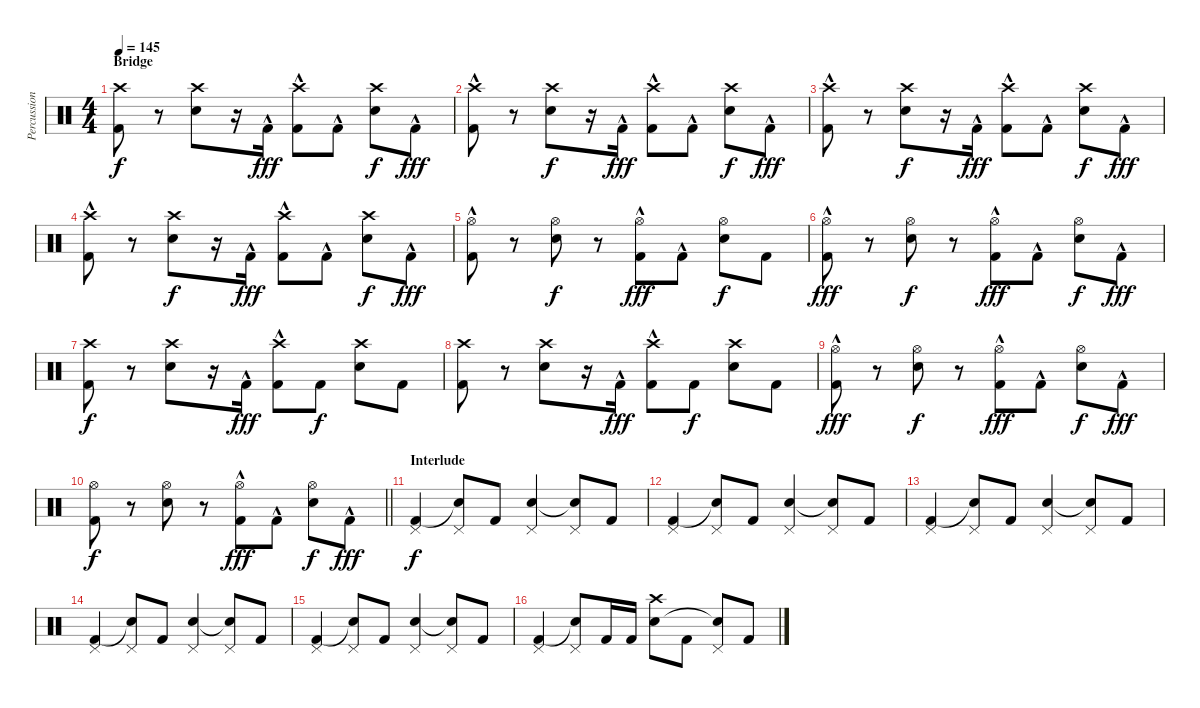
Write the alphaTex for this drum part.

\track ("Percussion" "Percussion") {instrument percussion}
\staff {score}
\articulation defaults
\ts (4 4)
\section ("" "Bridge")
\tempo 145
\clef neutral
\ks c
("Crash high (hit)" "Kick (hit) 2").8{dy f} r.8 ("Snare (hit) 2" "Crash high (hit)").8 r.16 "Kick (hit) 2"{hac}.16{dy fff} ("Crash high (hit)" "Kick (hit) 2"{hac}).8 "Kick (hit) 2"{hac}.8 ("Snare (hit) 2" "Crash high (hit)").8{dy f} "Kick (hit) 2"{hac}.8{dy fff} |
("Crash high (hit)" "Kick (hit) 2"{hac}).8 r.8 ("Snare (hit) 2" "Crash high (hit)").8{dy f} r.16 "Kick (hit) 2"{hac}.16{dy fff} ("Crash high (hit)" "Kick (hit) 2"{hac}).8 "Kick (hit) 2"{hac}.8 ("Snare (hit) 2" "Crash high (hit)").8{dy f} "Kick (hit) 2"{hac}.8{dy fff} |
("Crash high (hit)" "Kick (hit) 2"{hac}).8 r.8 ("Snare (hit) 2" "Crash high (hit)").8{dy f} r.16 "Kick (hit) 2"{hac}.16{dy fff} ("Crash high (hit)" "Kick (hit) 2"{hac}).8 "Kick (hit) 2"{hac}.8 ("Snare (hit) 2" "Crash high (hit)").8{dy f} "Kick (hit) 2"{hac}.8{dy fff} |
("Crash high (hit)" "Kick (hit) 2"{hac}).8 r.8 ("Snare (hit) 2" "Crash high (hit)").8{dy f} r.16 "Kick (hit) 2"{hac}.16{dy fff} ("Crash high (hit)" "Kick (hit) 2"{hac}).8 "Kick (hit) 2"{hac}.8 ("Snare (hit) 2" "Crash high (hit)").8{dy f} "Kick (hit) 2"{hac}.8{dy fff} |
("Hi-Hat (open)" "Kick (hit) 2"{hac}).8 r.8 ("Snare (hit) 2" "Hi-Hat (open)").8{dy f} r.8 ("Hi-Hat (open)" "Kick (hit) 2"{hac}).8{dy fff} "Kick (hit) 2"{hac}.8 ("Snare (hit) 2" "Hi-Hat (open)").8{dy f} "Kick (hit) 2".8 |
("Hi-Hat (open)" "Kick (hit) 2"{hac}).8{dy fff} r.8 ("Snare (hit) 2" "Hi-Hat (open)").8{dy f} r.8 ("Hi-Hat (open)" "Kick (hit) 2"{hac}).8{dy fff} "Kick (hit) 2"{hac}.8 ("Snare (hit) 2" "Hi-Hat (open)").8{dy f} "Kick (hit) 2"{hac}.8{dy fff} |
("Crash high (hit)" "Kick (hit) 2").8{dy f} r.8 ("Snare (hit) 2" "Crash high (hit)").8 r.16 "Kick (hit) 2"{hac}.16{dy fff} ("Crash high (hit)" "Kick (hit) 2"{hac}).8 "Kick (hit) 2".8{dy f} ("Snare (hit) 2" "Crash high (hit)").8 "Kick (hit) 2".8 |
("Crash high (hit)" "Kick (hit) 2").8 r.8 ("Snare (hit) 2" "Crash high (hit)").8 r.16 "Kick (hit) 2"{hac}.16{dy fff} ("Crash high (hit)" "Kick (hit) 2"{hac}).8 "Kick (hit) 2".8{dy f} ("Snare (hit) 2" "Crash high (hit)").8 "Kick (hit) 2".8 |
("Hi-Hat (open)" "Kick (hit) 2"{hac}).8{dy fff} r.8 ("Snare (hit) 2" "Hi-Hat (open)").8{dy f} r.8 ("Hi-Hat (open)" "Kick (hit) 2"{hac}).8{dy fff} "Kick (hit) 2"{hac}.8 ("Snare (hit) 2" "Hi-Hat (open)").8{dy f} "Kick (hit) 2"{hac}.8{dy fff} |
\barLineRight lightlight
("Hi-Hat (open)" "Kick (hit) 2").8{dy f} r.8 ("Snare (hit) 2" "Hi-Hat (open)").8 r.8 ("Hi-Hat (open)" "Kick (hit) 2"{hac}).8{dy fff} "Kick (hit) 2"{hac}.8 ("Snare (hit) 2" "Hi-Hat (open)").8{dy f} "Kick (hit) 2"{hac}.8{dy fff} |
\section ("" "Interlude")
("Pedal Hi-Hat (hit)" "Kick (hit) 2").4{dy f} ("Pedal Hi-Hat (hit)" "Snare (hit)"{t}).8 "Kick (hit) 2".8 ("Pedal Hi-Hat (hit)" "Snare (hit) 2").4 ("Pedal Hi-Hat (hit)" "Snare (hit)"{t}).8 "Kick (hit) 2".8 |
("Pedal Hi-Hat (hit)" "Kick (hit) 2").4 ("Pedal Hi-Hat (hit)" "Snare (hit)"{t}).8 "Kick (hit) 2".8 ("Pedal Hi-Hat (hit)" "Snare (hit) 2").4 ("Pedal Hi-Hat (hit)" "Snare (hit)"{t}).8 "Kick (hit) 2".8 |
("Pedal Hi-Hat (hit)" "Kick (hit) 2").4 ("Pedal Hi-Hat (hit)" "Snare (hit)"{t}).8 "Kick (hit) 2".8 ("Pedal Hi-Hat (hit)" "Snare (hit) 2").4 ("Pedal Hi-Hat (hit)" "Snare (hit)"{t}).8 "Kick (hit) 2".8 |
("Pedal Hi-Hat (hit)" "Kick (hit) 2").4 ("Pedal Hi-Hat (hit)" "Snare (hit)"{t}).8 "Kick (hit) 2".8 ("Pedal Hi-Hat (hit)" "Snare (hit) 2").4 ("Pedal Hi-Hat (hit)" "Snare (hit)"{t}).8 "Kick (hit) 2".8 |
("Pedal Hi-Hat (hit)" "Kick (hit) 2").4 ("Pedal Hi-Hat (hit)" "Snare (hit)"{t}).8 "Kick (hit) 2".8 ("Pedal Hi-Hat (hit)" "Snare (hit) 2").4 ("Pedal Hi-Hat (hit)" "Snare (hit)"{t}).8 "Kick (hit) 2".8 |
("Pedal Hi-Hat (hit)" "Kick (hit) 2").4 ("Pedal Hi-Hat (hit)" "Snare (hit)"{t}).8 "Kick (hit) 2".16 "Kick (hit) 2".16 ("Crash high (hit)" "Snare (hit) 2").8 "Kick (hit) 2".8 ("Pedal Hi-Hat (hit)" "Snare (hit)"{t}).8 "Kick (hit) 2".8
